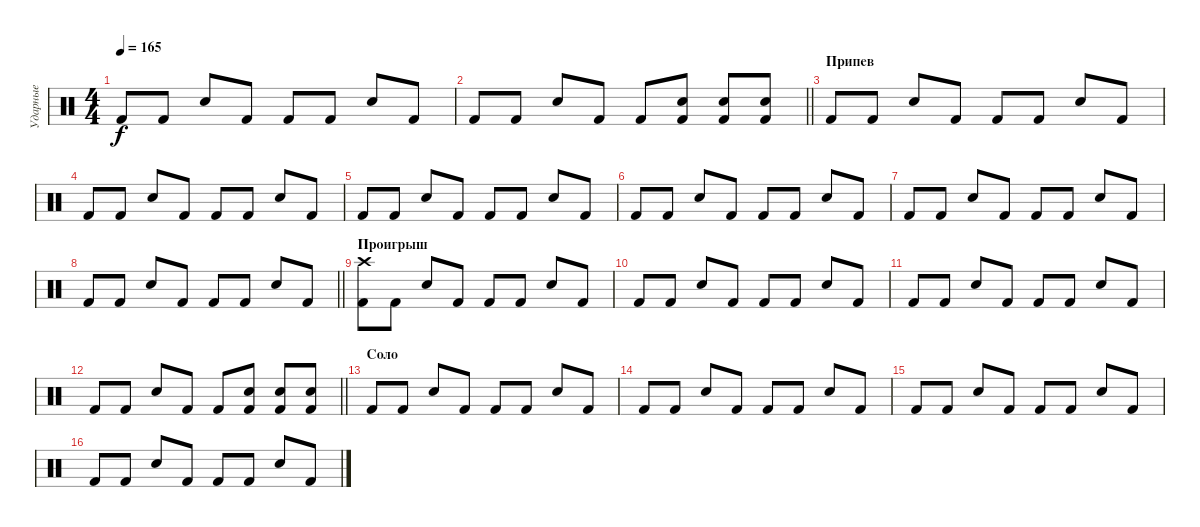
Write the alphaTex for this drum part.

\track ("Ударные" "Ударные") {instrument percussion}
\staff {score}
\articulation defaults
\ts (4 4)
\tempo 165
\clef neutral
\ks c "Kick (hit) 2".8{dy f} "Kick (hit) 2".8 "Snare (hit) 2".8 "Kick (hit) 2".8 "Kick (hit) 2".8 "Kick (hit) 2".8 "Snare (hit) 2".8 "Kick (hit) 2".8
|
\barLineRight lightlight "Kick (hit) 2".8 "Kick (hit) 2".8 "Snare (hit) 2".8 "Kick (hit) 2".8 "Kick (hit) 2".8
("Kick (hit) 2" "Snare (hit) 2").8 ("Kick (hit) 2" "Snare (hit) 2").8 ("Kick (hit) 2" "Snare (hit) 2").8 |
\section ("" "Припев")
"Kick (hit) 2".8 "Kick (hit) 2".8 "Snare (hit) 2".8 "Kick (hit) 2".8 "Kick (hit) 2".8 "Kick (hit) 2".8 "Snare (hit) 2".8 "Kick (hit) 2".8 |
"Kick (hit) 2".8 "Kick (hit) 2".8 "Snare (hit) 2".8 "Kick (hit) 2".8 "Kick (hit) 2".8 "Kick (hit) 2".8 "Snare (hit) 2".8 "Kick (hit) 2".8 |
"Kick (hit) 2".8 "Kick (hit) 2".8 "Snare (hit) 2".8 "Kick (hit) 2".8 "Kick (hit) 2".8 "Kick (hit) 2".8 "Snare (hit) 2".8 "Kick (hit) 2".8 |
"Kick (hit) 2".8 "Kick (hit) 2".8 "Snare (hit) 2".8 "Kick (hit) 2".8 "Kick (hit) 2".8 "Kick (hit) 2".8 "Snare (hit) 2".8 "Kick (hit) 2".8 |
"Kick (hit) 2".8 "Kick (hit) 2".8 "Snare (hit) 2".8 "Kick (hit) 2".8 "Kick (hit) 2".8 "Kick (hit) 2".8 "Snare (hit) 2".8 "Kick (hit) 2".8 |
\barLineRight lightlight "Kick (hit) 2".8 "Kick (hit) 2".8 "Snare (hit) 2".8 "Kick (hit) 2".8 "Kick (hit) 2".8 "Kick (hit) 2".8 "Snare (hit) 2".8 "Kick (hit) 2".8
|
\section ("" "Проигрыш")
("Kick (hit) 2" "Crash high (hit)").8 "Kick (hit) 2".8 "Snare (hit) 2".8 "Kick (hit) 2".8 "Kick (hit) 2".8 "Kick (hit) 2".8 "Snare (hit) 2".8 "Kick (hit) 2".8 |
"Kick (hit) 2".8 "Kick (hit) 2".8 "Snare (hit) 2".8 "Kick (hit) 2".8 "Kick (hit) 2".8 "Kick (hit) 2".8 "Snare (hit) 2".8 "Kick (hit) 2".8 |
"Kick (hit) 2".8 "Kick (hit) 2".8 "Snare (hit) 2".8 "Kick (hit) 2".8 "Kick (hit) 2".8 "Kick (hit) 2".8 "Snare (hit) 2".8 "Kick (hit) 2".8 |
\barLineRight lightlight "Kick (hit) 2".8 "Kick (hit) 2".8 "Snare (hit) 2".8 "Kick (hit) 2".8 "Kick (hit) 2".8
("Kick (hit) 2" "Snare (hit) 2").8 ("Kick (hit) 2" "Snare (hit) 2").8 ("Kick (hit) 2" "Snare (hit) 2").8 |
\section ("" "Соло")
"Kick (hit) 2".8 "Kick (hit) 2".8 "Snare (hit) 2".8 "Kick (hit) 2".8 "Kick (hit) 2".8 "Kick (hit) 2".8 "Snare (hit) 2".8 "Kick (hit) 2".8 |
"Kick (hit) 2".8 "Kick (hit) 2".8 "Snare (hit) 2".8 "Kick (hit) 2".8 "Kick (hit) 2".8 "Kick (hit) 2".8 "Snare (hit) 2".8 "Kick (hit) 2".8 |
"Kick (hit) 2".8 "Kick (hit) 2".8 "Snare (hit) 2".8 "Kick (hit) 2".8 "Kick (hit) 2".8 "Kick (hit) 2".8 "Snare (hit) 2".8 "Kick (hit) 2".8 |
"Kick (hit) 2".8 "Kick (hit) 2".8 "Snare (hit) 2".8 "Kick (hit) 2".8 "Kick (hit) 2".8 "Kick (hit) 2".8 "Snare (hit) 2".8 "Kick (hit) 2".8
